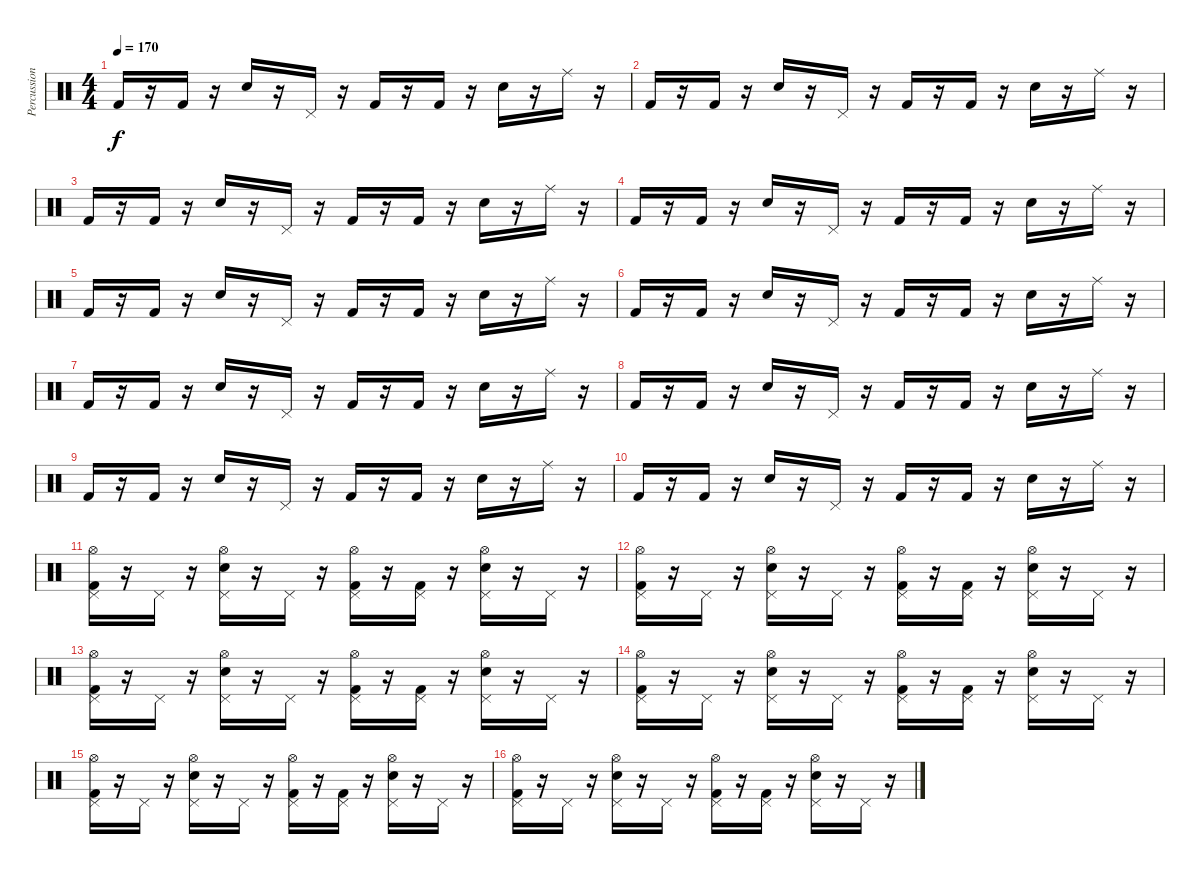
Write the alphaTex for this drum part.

\track ("Percussion" "Percussion") {instrument percussion}
\staff {score}
\articulation defaults
\ts (4 4)
\tempo 170
\clef neutral
\ks c "Kick (hit) 2".16{dy f}
r.16 "Kick (hit) 2".16 r.16 "Snare (hit) 2".16 r.16 "Pedal Hi-Hat (hit)".16 r.16 "Kick (hit) 2".16 r.16 "Kick (hit) 2".16 r.16 "Snare (hit) 2".16 r.16 "Ride (middle)".16 r.16 |
"Kick (hit) 2".16 r.16 "Kick (hit) 2".16 r.16 "Snare (hit) 2".16 r.16 "Pedal Hi-Hat (hit)".16 r.16 "Kick (hit) 2".16 r.16 "Kick (hit) 2".16 r.16 "Snare (hit) 2".16 r.16 "Ride (middle)".16 r.16 |
"Kick (hit) 2".16 r.16 "Kick (hit) 2".16 r.16 "Snare (hit) 2".16 r.16 "Pedal Hi-Hat (hit)".16 r.16 "Kick (hit) 2".16 r.16 "Kick (hit) 2".16 r.16 "Snare (hit) 2".16 r.16 "Ride (middle)".16 r.16 |
"Kick (hit) 2".16 r.16 "Kick (hit) 2".16 r.16 "Snare (hit) 2".16 r.16 "Pedal Hi-Hat (hit)".16 r.16 "Kick (hit) 2".16 r.16 "Kick (hit) 2".16 r.16 "Snare (hit) 2".16 r.16 "Ride (middle)".16 r.16 |
"Kick (hit) 2".16 r.16 "Kick (hit) 2".16 r.16 "Snare (hit) 2".16 r.16 "Pedal Hi-Hat (hit)".16 r.16 "Kick (hit) 2".16 r.16 "Kick (hit) 2".16 r.16 "Snare (hit) 2".16 r.16 "Ride (middle)".16 r.16 |
"Kick (hit) 2".16 r.16 "Kick (hit) 2".16 r.16 "Snare (hit) 2".16 r.16 "Pedal Hi-Hat (hit)".16 r.16 "Kick (hit) 2".16 r.16 "Kick (hit) 2".16 r.16 "Snare (hit) 2".16 r.16 "Ride (middle)".16 r.16 |
"Kick (hit) 2".16 r.16 "Kick (hit) 2".16 r.16 "Snare (hit) 2".16 r.16 "Pedal Hi-Hat (hit)".16 r.16 "Kick (hit) 2".16 r.16 "Kick (hit) 2".16 r.16 "Snare (hit) 2".16 r.16 "Ride (middle)".16 r.16 |
"Kick (hit) 2".16 r.16 "Kick (hit) 2".16 r.16 "Snare (hit) 2".16 r.16 "Pedal Hi-Hat (hit)".16 r.16 "Kick (hit) 2".16 r.16 "Kick (hit) 2".16 r.16 "Snare (hit) 2".16 r.16 "Ride (middle)".16 r.16 |
"Kick (hit) 2".16 r.16 "Kick (hit) 2".16 r.16 "Snare (hit) 2".16 r.16 "Pedal Hi-Hat (hit)".16 r.16 "Kick (hit) 2".16 r.16 "Kick (hit) 2".16 r.16 "Snare (hit) 2".16 r.16 "Ride (middle)".16 r.16 |
"Kick (hit) 2".16 r.16 "Kick (hit) 2".16 r.16 "Snare (hit) 2".16 r.16 "Pedal Hi-Hat (hit)".16 r.16 "Kick (hit) 2".16 r.16 "Kick (hit) 2".16 r.16 "Snare (hit) 2".16 r.16 "Ride (middle)".16 r.16 |
("Pedal Hi-Hat (hit)" "Hi-Hat (open)" "Kick (hit) 2").16 r.16 "Pedal Hi-Hat (hit)".16 r.16 ("Pedal Hi-Hat (hit)" "Hi-Hat (open)" "Snare (hit) 2").16 r.16 "Pedal Hi-Hat (hit)".16 r.16 ("Pedal Hi-Hat (hit)" "Hi-Hat (open)" "Kick (hit) 2").16 r.16 ("Pedal Hi-Hat (hit)" "Kick (hit) 2").16 r.16 ("Pedal Hi-Hat (hit)" "Hi-Hat (open)" "Snare (hit) 2").16 r.16 "Pedal Hi-Hat (hit)".16 r.16 |
("Pedal Hi-Hat (hit)" "Hi-Hat (open)" "Kick (hit) 2").16 r.16 "Pedal Hi-Hat (hit)".16 r.16 ("Pedal Hi-Hat (hit)" "Hi-Hat (open)" "Snare (hit) 2").16 r.16 "Pedal Hi-Hat (hit)".16 r.16 ("Pedal Hi-Hat (hit)" "Hi-Hat (open)" "Kick (hit) 2").16 r.16 ("Pedal Hi-Hat (hit)" "Kick (hit) 2").16 r.16 ("Pedal Hi-Hat (hit)" "Hi-Hat (open)" "Snare (hit) 2").16 r.16 "Pedal Hi-Hat (hit)".16 r.16 |
("Pedal Hi-Hat (hit)" "Hi-Hat (open)" "Kick (hit) 2").16 r.16 "Pedal Hi-Hat (hit)".16 r.16 ("Pedal Hi-Hat (hit)" "Hi-Hat (open)" "Snare (hit) 2").16 r.16 "Pedal Hi-Hat (hit)".16 r.16 ("Pedal Hi-Hat (hit)" "Hi-Hat (open)" "Kick (hit) 2").16 r.16 ("Pedal Hi-Hat (hit)" "Kick (hit) 2").16 r.16 ("Pedal Hi-Hat (hit)" "Hi-Hat (open)" "Snare (hit) 2").16 r.16 "Pedal Hi-Hat (hit)".16 r.16 |
("Pedal Hi-Hat (hit)" "Hi-Hat (open)" "Kick (hit) 2").16 r.16 "Pedal Hi-Hat (hit)".16 r.16 ("Pedal Hi-Hat (hit)" "Hi-Hat (open)" "Snare (hit) 2").16 r.16 "Pedal Hi-Hat (hit)".16 r.16 ("Pedal Hi-Hat (hit)" "Hi-Hat (open)" "Kick (hit) 2").16 r.16 ("Pedal Hi-Hat (hit)" "Kick (hit) 2").16 r.16 ("Pedal Hi-Hat (hit)" "Hi-Hat (open)" "Snare (hit) 2").16 r.16 "Pedal Hi-Hat (hit)".16 r.16 |
("Pedal Hi-Hat (hit)" "Hi-Hat (open)" "Kick (hit) 2").16 r.16 "Pedal Hi-Hat (hit)".16 r.16 ("Pedal Hi-Hat (hit)" "Hi-Hat (open)" "Snare (hit) 2").16 r.16 "Pedal Hi-Hat (hit)".16 r.16 ("Pedal Hi-Hat (hit)" "Hi-Hat (open)" "Kick (hit) 2").16 r.16 ("Pedal Hi-Hat (hit)" "Kick (hit) 2").16 r.16 ("Pedal Hi-Hat (hit)" "Hi-Hat (open)" "Snare (hit) 2").16 r.16 "Pedal Hi-Hat (hit)".16 r.16 |
("Pedal Hi-Hat (hit)" "Hi-Hat (open)" "Kick (hit) 2").16 r.16 "Pedal Hi-Hat (hit)".16 r.16 ("Pedal Hi-Hat (hit)" "Hi-Hat (open)" "Snare (hit) 2").16 r.16 "Pedal Hi-Hat (hit)".16 r.16 ("Pedal Hi-Hat (hit)" "Hi-Hat (open)" "Kick (hit) 2").16 r.16 ("Pedal Hi-Hat (hit)" "Kick (hit) 2").16 r.16 ("Pedal Hi-Hat (hit)" "Hi-Hat (open)" "Snare (hit) 2").16 r.16 "Pedal Hi-Hat (hit)".16 r.16
